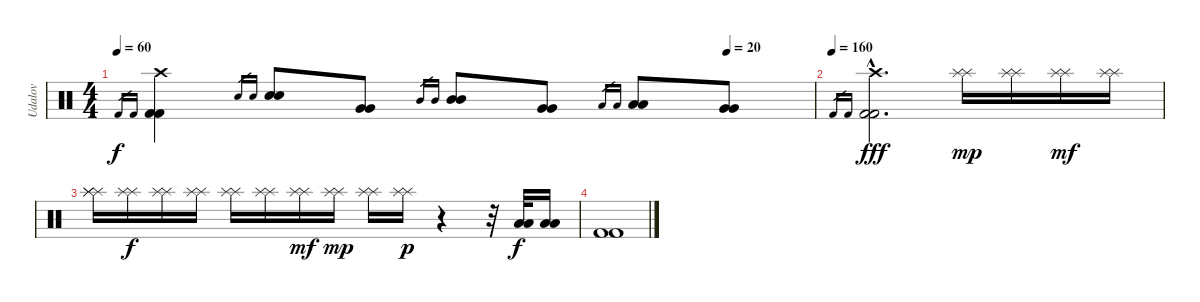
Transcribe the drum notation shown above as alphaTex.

\track ("Udalov" "Udalov") {instrument percussion}
\staff {score}
\articulation defaults
\ts (4 4)
\tempo 60
\tempo (20 0.875)
\clef neutral
\ks c "Kick (hit) 2".16{gr dy f} "Kick (hit) 2".16{gr}
("Crash high (hit)" "Kick (hit) 2" "Kick (hit) 2").4 "Electric Snare (hit)".16{gr} "Electric Snare (hit)".16{gr} ("Electric Snare (hit)" "Electric Snare (hit)").8 ("Very Low Tom (hit)" "Very Low Tom (hit)").8 "Mid Tom (hit)".16{gr} "Mid Tom (hit)".16{gr} ("Mid Tom (hit)" "Mid Tom (hit)").8 ("Very Low Tom (hit)" "Very Low Tom (hit)").8 "Low Tom (hit)".16{gr} "Low Tom (hit)".16{gr} ("Low Tom (hit)" "Low Tom (hit)").8 ("Very Low Tom (hit)" "Very Low Tom (hit)").8 |
\tempo (160)
"Kick (hit) 2".16{gr} "Kick (hit) 2".16{gr} ("Crash high (hit)" "Kick (hit) 2"{hac} "Kick (hit) 2"{hac}).2{d dy fff} ("Splash (hit)" "Splash (hit)").16{dy mp} ("Splash (hit)" "Splash (hit)").16 ("Splash (hit)" "Splash (hit)").16{dy mf} ("Splash (hit)" "Splash (hit)").16 |
("Splash (hit)" "Splash (hit)" "Splash (hit)").16 ("Splash (hit)" "Splash (hit)").16{dy f} ("Splash (hit)" "Splash (hit)").16 ("Splash (hit)" "Splash (hit)").16 ("Splash (hit)" "Splash (hit)").16 ("Splash (hit)" "Splash (hit)").16 ("Splash (hit)" "Splash (hit)").16{dy mf} ("Splash (hit)" "Splash (hit)").16{dy mp} ("Splash (hit)" "Splash (hit)").16 ("Splash (hit)" "Splash (hit)").16{dy p} r.4 r.32 ("Low Tom (hit)" "Low Tom (hit)").32{dy f} ("Low Tom (hit)" "Low Tom (hit)").16 |
("Kick (hit) 2" "Kick (hit) 2").1
